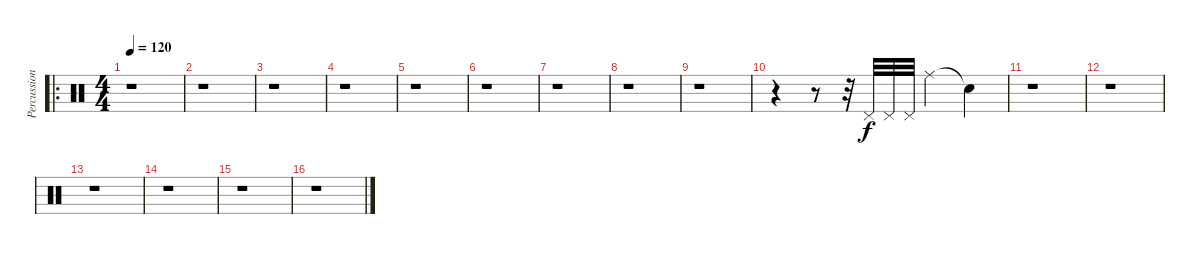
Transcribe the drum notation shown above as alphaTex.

\track ("Percussions" "Percussion") {instrument percussion}
\staff {score}
\articulation defaults
\ro
\ts (4 4)
\tempo 120
\clef neutral
\ks c
r.1{dy f} |
r.1 |
r.1 |
r.1 |
r.1 |
r.1 |
r.1 |
r.1 |
r.1 |
r.4 r.8 r.32 "Pedal Hi-Hat (hit)".32 "Pedal Hi-Hat (hit)".32 "Pedal Hi-Hat (hit)".32 "Ride (middle)".4 "Snare (hit)"{t}.4 |
r.1 |
r.1 |
r.1 |
r.1 |
r.1 |
r.1
